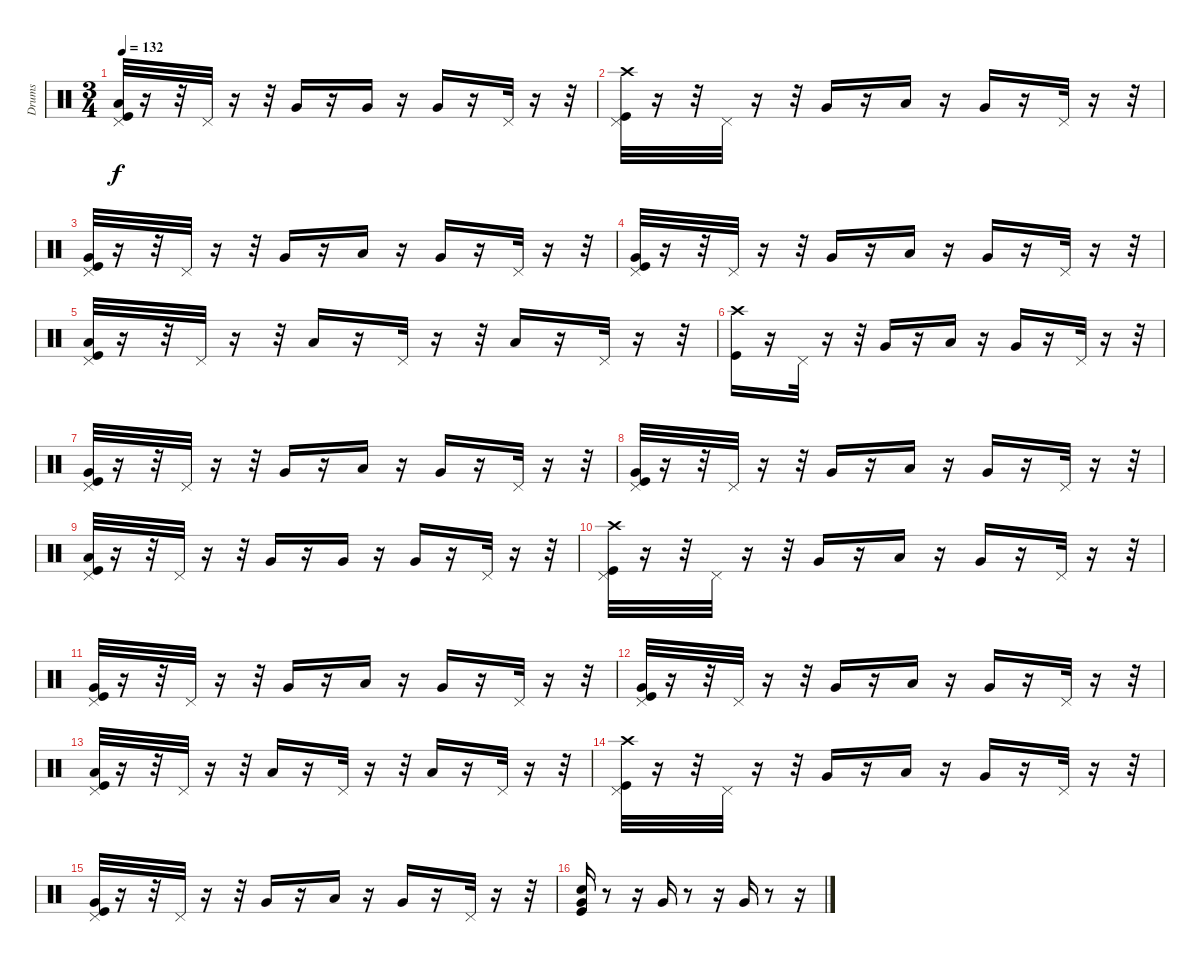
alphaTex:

\track ("Drums" "Drums") {instrument percussion}
\staff {score}
\articulation defaults
\ts (3 4)
\tempo 132
\clef neutral
\ks c
("Kick (hit)" "Low Tom (hit)" "Pedal Hi-Hat (hit)").32{dy f} r.16 r.32 "Pedal Hi-Hat (hit)".32 r.16 r.32 "Very Low Tom (hit)".16 r.16 "Very Low Tom (hit)".16 r.16 "Very Low Tom (hit)".16 r.16 "Pedal Hi-Hat (hit)".32 r.16 r.32 |
("Kick (hit)" "Crash high (hit)" "Pedal Hi-Hat (hit)").32 r.16 r.32 "Pedal Hi-Hat (hit)".32 r.16 r.32 "Very Low Tom (hit)".16 r.16 "Low Tom (hit)".16 r.16 "Very Low Tom (hit)".16 r.16 "Pedal Hi-Hat (hit)".32 r.16 r.32 |
("Kick (hit)" "Pedal Hi-Hat (hit)" "Very Low Tom (hit)").32 r.16 r.32 "Pedal Hi-Hat (hit)".32 r.16 r.32 "Very Low Tom (hit)".16 r.16 "Low Tom (hit)".16 r.16 "Very Low Tom (hit)".16 r.16 "Pedal Hi-Hat (hit)".32 r.16 r.32 |
("Kick (hit)" "Pedal Hi-Hat (hit)" "Very Low Tom (hit)").32 r.16 r.32 "Pedal Hi-Hat (hit)".32 r.16 r.32 "Very Low Tom (hit)".16 r.16 "Low Tom (hit)".16 r.16 "Very Low Tom (hit)".16 r.16 "Pedal Hi-Hat (hit)".32 r.16 r.32 |
("Kick (hit)" "Low Tom (hit)" "Pedal Hi-Hat (hit)").32 r.16 r.32 "Pedal Hi-Hat (hit)".32 r.16 r.32 "Low Floor Tom (hit)".16 r.16 "Pedal Hi-Hat (hit)".32 r.16 r.32 "Low Floor Tom (hit)".16 r.16 "Pedal Hi-Hat (hit)".32 r.16 r.32 |
("Crash high (hit)" "Kick (hit)").16 r.16 "Pedal Hi-Hat (hit)".32 r.16 r.32 "Very Low Tom (hit)".16 r.16 "Low Tom (hit)".16 r.16 "Very Low Tom (hit)".16 r.16 "Pedal Hi-Hat (hit)".32 r.16 r.32 |
("Kick (hit)" "Pedal Hi-Hat (hit)" "Very Low Tom (hit)").32 r.16 r.32 "Pedal Hi-Hat (hit)".32 r.16 r.32 "Very Low Tom (hit)".16 r.16 "Low Tom (hit)".16 r.16 "Very Low Tom (hit)".16 r.16 "Pedal Hi-Hat (hit)".32 r.16 r.32 |
("Kick (hit)" "Pedal Hi-Hat (hit)" "Very Low Tom (hit)").32 r.16 r.32 "Pedal Hi-Hat (hit)".32 r.16 r.32 "Very Low Tom (hit)".16 r.16 "Low Tom (hit)".16 r.16 "Very Low Tom (hit)".16 r.16 "Pedal Hi-Hat (hit)".32 r.16 r.32 |
("Kick (hit)" "Low Tom (hit)" "Pedal Hi-Hat (hit)").32 r.16 r.32 "Pedal Hi-Hat (hit)".32 r.16 r.32 "Very Low Tom (hit)".16 r.16 "Very Low Tom (hit)".16 r.16 "Very Low Tom (hit)".16 r.16 "Pedal Hi-Hat (hit)".32 r.16 r.32 |
("Kick (hit)" "Crash high (hit)" "Pedal Hi-Hat (hit)").32 r.16 r.32 "Pedal Hi-Hat (hit)".32 r.16 r.32 "Very Low Tom (hit)".16 r.16 "Low Tom (hit)".16 r.16 "Very Low Tom (hit)".16 r.16 "Pedal Hi-Hat (hit)".32 r.16 r.32 |
("Kick (hit)" "Pedal Hi-Hat (hit)" "Very Low Tom (hit)").32 r.16 r.32 "Pedal Hi-Hat (hit)".32 r.16 r.32 "Very Low Tom (hit)".16 r.16 "Low Tom (hit)".16 r.16 "Very Low Tom (hit)".16 r.16 "Pedal Hi-Hat (hit)".32 r.16 r.32 |
("Kick (hit)" "Pedal Hi-Hat (hit)" "Very Low Tom (hit)").32 r.16 r.32 "Pedal Hi-Hat (hit)".32 r.16 r.32 "Very Low Tom (hit)".16 r.16 "Low Tom (hit)".16 r.16 "Very Low Tom (hit)".16 r.16 "Pedal Hi-Hat (hit)".32 r.16 r.32 |
("Kick (hit)" "Low Tom (hit)" "Pedal Hi-Hat (hit)").32 r.16 r.32 "Pedal Hi-Hat (hit)".32 r.16 r.32 "Low Floor Tom (hit)".16 r.16 "Pedal Hi-Hat (hit)".32 r.16 r.32 "Low Floor Tom (hit)".16 r.16 "Pedal Hi-Hat (hit)".32 r.16 r.32 |
("Pedal Hi-Hat (hit)" "Kick (hit)" "Crash high (hit)").32 r.16 r.32 "Pedal Hi-Hat (hit)".32 r.16 r.32 "Very Low Tom (hit)".16 r.16 "Low Tom (hit)".16 r.16 "Very Low Tom (hit)".16 r.16 "Pedal Hi-Hat (hit)".32 r.16 r.32 |
("Pedal Hi-Hat (hit)" "Kick (hit)" "Very Low Tom (hit)").32 r.16 r.32 "Pedal Hi-Hat (hit)".32 r.16 r.32 "Very Low Tom (hit)".16 r.16 "Low Tom (hit)".16 r.16 "Very Low Tom (hit)".16 r.16 "Pedal Hi-Hat (hit)".32 r.16 r.32 |
("Very Low Tom (hit)" "Kick (hit)" "Snare (hit) 2").16 r.8 r.16 "Very Low Tom (hit)".16 r.8 r.16 "Very Low Tom (hit)".16 r.8 r.16
